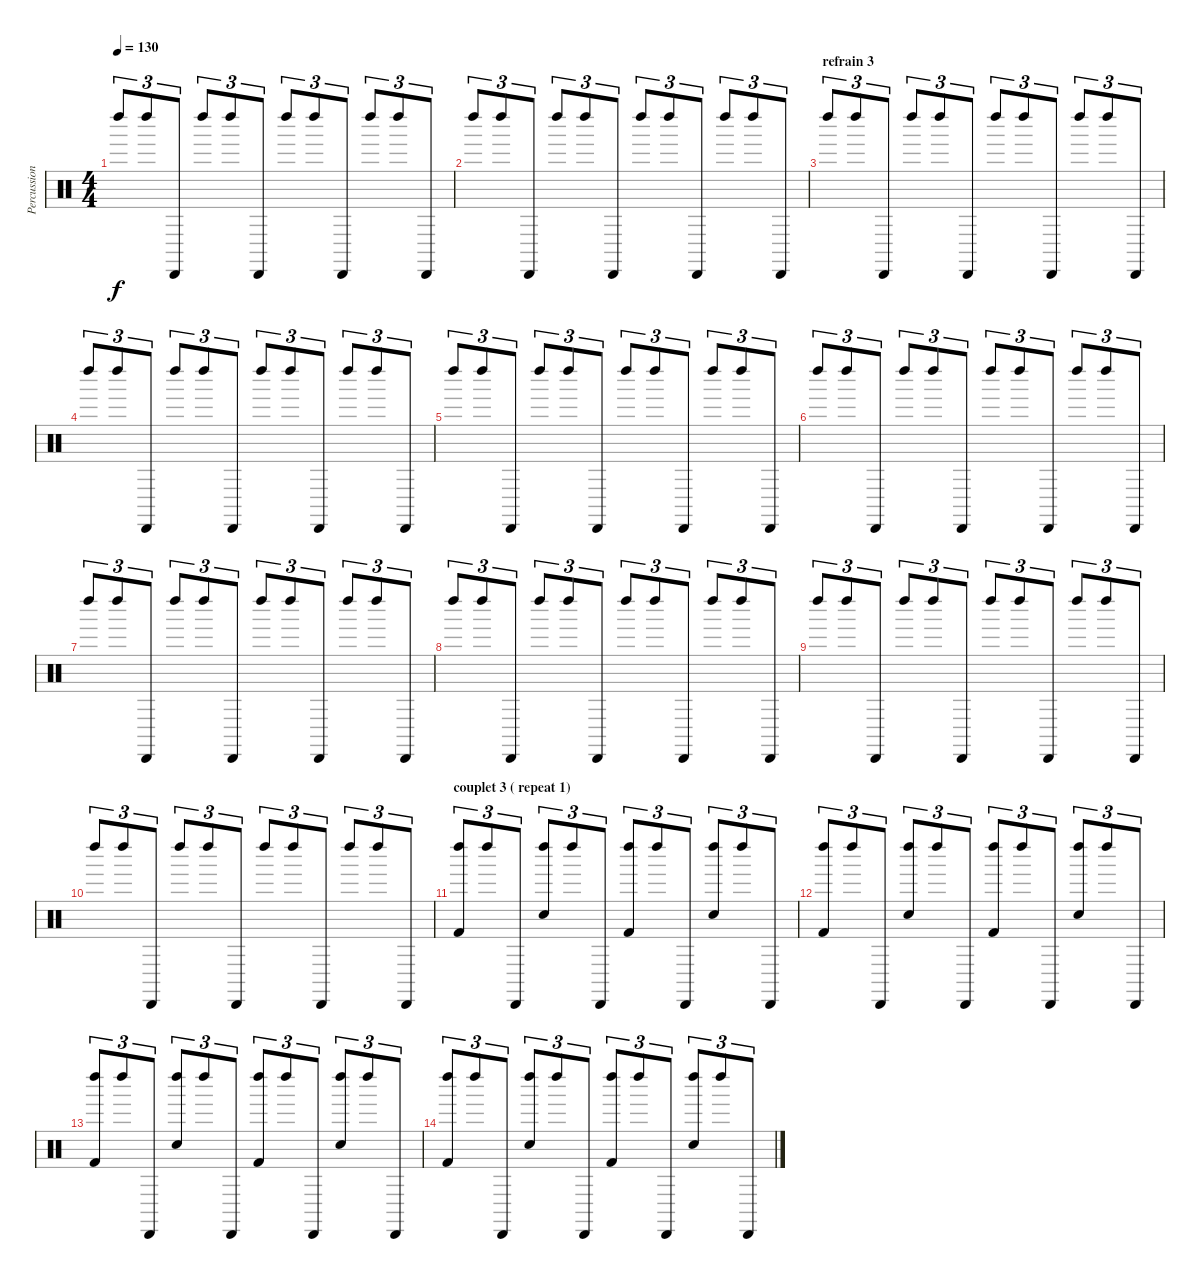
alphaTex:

\track ("Percussions Farrell Morris" "Percussion") {instrument percussion}
\staff {score}
\articulation defaults
\ts (4 4)
\tempo 130
\clef neutral
\ks c "Left Maraca (hit)".8{tu (3 2) dy f} "Left Maraca (hit)".8{tu (3 2)} "Cabasa (hit)".8{tu (3 2)} "Left Maraca (hit)".8{tu (3 2)} "Left Maraca (hit)".8{tu (3 2)} "Cabasa (hit)".8{tu (3 2)} "Left Maraca (hit)".8{tu (3 2)} "Left Maraca (hit)".8{tu (3 2)} "Cabasa (hit)".8{tu (3 2)} "Left Maraca (hit)".8{tu (3 2)} "Left Maraca (hit)".8{tu (3 2)} "Cabasa (hit)".8{tu (3 2)}
|
"Left Maraca (hit)".8{tu (3 2)} "Left Maraca (hit)".8{tu (3 2)} "Cabasa (hit)".8{tu (3 2)} "Left Maraca (hit)".8{tu (3 2)} "Left Maraca (hit)".8{tu (3 2)} "Cabasa (hit)".8{tu (3 2)} "Left Maraca (hit)".8{tu (3 2)} "Left Maraca (hit)".8{tu (3 2)} "Cabasa (hit)".8{tu (3 2)} "Left Maraca (hit)".8{tu (3 2)} "Left Maraca (hit)".8{tu (3 2)} "Cabasa (hit)".8{tu (3 2)} |
\section ("" "refrain 3")
"Left Maraca (hit)".8{tu (3 2)} "Left Maraca (hit)".8{tu (3 2)} "Cabasa (hit)".8{tu (3 2)} "Left Maraca (hit)".8{tu (3 2)} "Left Maraca (hit)".8{tu (3 2)} "Cabasa (hit)".8{tu (3 2)} "Left Maraca (hit)".8{tu (3 2)} "Left Maraca (hit)".8{tu (3 2)} "Cabasa (hit)".8{tu (3 2)} "Left Maraca (hit)".8{tu (3 2)} "Left Maraca (hit)".8{tu (3 2)} "Cabasa (hit)".8{tu (3 2)} |
"Left Maraca (hit)".8{tu (3 2)} "Left Maraca (hit)".8{tu (3 2)} "Cabasa (hit)".8{tu (3 2)} "Left Maraca (hit)".8{tu (3 2)} "Left Maraca (hit)".8{tu (3 2)} "Cabasa (hit)".8{tu (3 2)} "Left Maraca (hit)".8{tu (3 2)} "Left Maraca (hit)".8{tu (3 2)} "Cabasa (hit)".8{tu (3 2)} "Left Maraca (hit)".8{tu (3 2)} "Left Maraca (hit)".8{tu (3 2)} "Cabasa (hit)".8{tu (3 2)} |
"Left Maraca (hit)".8{tu (3 2)} "Left Maraca (hit)".8{tu (3 2)} "Cabasa (hit)".8{tu (3 2)} "Left Maraca (hit)".8{tu (3 2)} "Left Maraca (hit)".8{tu (3 2)} "Cabasa (hit)".8{tu (3 2)} "Left Maraca (hit)".8{tu (3 2)} "Left Maraca (hit)".8{tu (3 2)} "Cabasa (hit)".8{tu (3 2)} "Left Maraca (hit)".8{tu (3 2)} "Left Maraca (hit)".8{tu (3 2)} "Cabasa (hit)".8{tu (3 2)} |
"Left Maraca (hit)".8{tu (3 2)} "Left Maraca (hit)".8{tu (3 2)} "Cabasa (hit)".8{tu (3 2)} "Left Maraca (hit)".8{tu (3 2)} "Left Maraca (hit)".8{tu (3 2)} "Cabasa (hit)".8{tu (3 2)} "Left Maraca (hit)".8{tu (3 2)} "Left Maraca (hit)".8{tu (3 2)} "Cabasa (hit)".8{tu (3 2)} "Left Maraca (hit)".8{tu (3 2)} "Left Maraca (hit)".8{tu (3 2)} "Cabasa (hit)".8{tu (3 2)} |
"Left Maraca (hit)".8{tu (3 2)} "Left Maraca (hit)".8{tu (3 2)} "Cabasa (hit)".8{tu (3 2)} "Left Maraca (hit)".8{tu (3 2)} "Left Maraca (hit)".8{tu (3 2)} "Cabasa (hit)".8{tu (3 2)} "Left Maraca (hit)".8{tu (3 2)} "Left Maraca (hit)".8{tu (3 2)} "Cabasa (hit)".8{tu (3 2)} "Left Maraca (hit)".8{tu (3 2)} "Left Maraca (hit)".8{tu (3 2)} "Cabasa (hit)".8{tu (3 2)} |
"Left Maraca (hit)".8{tu (3 2)} "Left Maraca (hit)".8{tu (3 2)} "Cabasa (hit)".8{tu (3 2)} "Left Maraca (hit)".8{tu (3 2)} "Left Maraca (hit)".8{tu (3 2)} "Cabasa (hit)".8{tu (3 2)} "Left Maraca (hit)".8{tu (3 2)} "Left Maraca (hit)".8{tu (3 2)} "Cabasa (hit)".8{tu (3 2)} "Left Maraca (hit)".8{tu (3 2)} "Left Maraca (hit)".8{tu (3 2)} "Cabasa (hit)".8{tu (3 2)} |
"Left Maraca (hit)".8{tu (3 2)} "Left Maraca (hit)".8{tu (3 2)} "Cabasa (hit)".8{tu (3 2)} "Left Maraca (hit)".8{tu (3 2)} "Left Maraca (hit)".8{tu (3 2)} "Cabasa (hit)".8{tu (3 2)} "Left Maraca (hit)".8{tu (3 2)} "Left Maraca (hit)".8{tu (3 2)} "Cabasa (hit)".8{tu (3 2)} "Left Maraca (hit)".8{tu (3 2)} "Left Maraca (hit)".8{tu (3 2)} "Cabasa (hit)".8{tu (3 2)} |
"Left Maraca (hit)".8{tu (3 2)} "Left Maraca (hit)".8{tu (3 2)} "Cabasa (hit)".8{tu (3 2)} "Left Maraca (hit)".8{tu (3 2)} "Left Maraca (hit)".8{tu (3 2)} "Cabasa (hit)".8{tu (3 2)} "Left Maraca (hit)".8{tu (3 2)} "Left Maraca (hit)".8{tu (3 2)} "Cabasa (hit)".8{tu (3 2)} "Left Maraca (hit)".8{tu (3 2)} "Left Maraca (hit)".8{tu (3 2)} "Cabasa (hit)".8{tu (3 2)} |
\section ("" "couplet 3 ( repeat 1)")
("Kick (hit) 2" "Left Maraca (hit)").8{tu (3 2)} "Left Maraca (hit)".8{tu (3 2)} "Cabasa (hit)".8{tu (3 2)} ("Electric Snare (hit)" "Left Maraca (hit)").8{tu (3 2)} "Left Maraca (hit)".8{tu (3 2)} "Cabasa (hit)".8{tu (3 2)} ("Kick (hit) 2" "Left Maraca (hit)").8{tu (3 2)} "Left Maraca (hit)".8{tu (3 2)} "Cabasa (hit)".8{tu (3 2)} ("Electric Snare (hit)" "Left Maraca (hit)").8{tu (3 2)} "Left Maraca (hit)".8{tu (3 2)} "Cabasa (hit)".8{tu (3 2)} |
("Kick (hit) 2" "Left Maraca (hit)").8{tu (3 2)} "Left Maraca (hit)".8{tu (3 2)} "Cabasa (hit)".8{tu (3 2)} ("Electric Snare (hit)" "Left Maraca (hit)").8{tu (3 2)} "Left Maraca (hit)".8{tu (3 2)} "Cabasa (hit)".8{tu (3 2)} ("Kick (hit) 2" "Left Maraca (hit)").8{tu (3 2)} "Left Maraca (hit)".8{tu (3 2)} "Cabasa (hit)".8{tu (3 2)} ("Electric Snare (hit)" "Left Maraca (hit)").8{tu (3 2)} "Left Maraca (hit)".8{tu (3 2)} "Cabasa (hit)".8{tu (3 2)} |
("Kick (hit) 2" "Left Maraca (hit)").8{tu (3 2)} "Left Maraca (hit)".8{tu (3 2)} "Cabasa (hit)".8{tu (3 2)} ("Electric Snare (hit)" "Left Maraca (hit)").8{tu (3 2)} "Left Maraca (hit)".8{tu (3 2)} "Cabasa (hit)".8{tu (3 2)} ("Kick (hit) 2" "Left Maraca (hit)").8{tu (3 2)} "Left Maraca (hit)".8{tu (3 2)} "Cabasa (hit)".8{tu (3 2)} ("Electric Snare (hit)" "Left Maraca (hit)").8{tu (3 2)} "Left Maraca (hit)".8{tu (3 2)} "Cabasa (hit)".8{tu (3 2)} |
("Kick (hit) 2" "Left Maraca (hit)").8{tu (3 2)} "Left Maraca (hit)".8{tu (3 2)} "Cabasa (hit)".8{tu (3 2)} ("Electric Snare (hit)" "Left Maraca (hit)").8{tu (3 2)} "Left Maraca (hit)".8{tu (3 2)} "Cabasa (hit)".8{tu (3 2)} ("Kick (hit) 2" "Left Maraca (hit)").8{tu (3 2)} "Left Maraca (hit)".8{tu (3 2)} "Cabasa (hit)".8{tu (3 2)} ("Electric Snare (hit)" "Left Maraca (hit)").8{tu (3 2)} "Left Maraca (hit)".8{tu (3 2)} "Cabasa (hit)".8{tu (3 2)}
